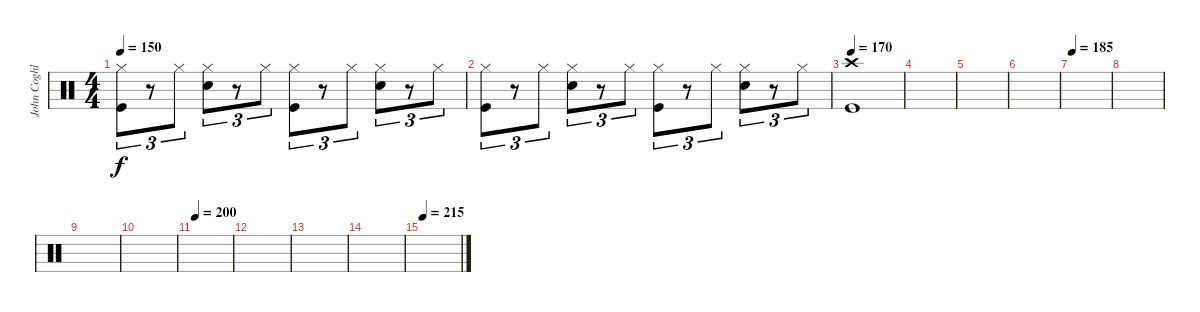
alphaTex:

\track ("John Coghlan" "John Coghl") {instrument percussion}
\staff {score}
\articulation defaults
\ts (4 4)
\tempo 150
\clef neutral
\ks c
("Hi-Hat (closed)" "Kick (hit)").8{tu (3 2) dy f} r.8{tu (3 2)} "Hi-Hat (closed)".8{tu (3 2)} ("Electric Snare (hit)" "Hi-Hat (closed)").8{tu (3 2)} r.8{tu (3 2)} "Hi-Hat (closed)".8{tu (3 2)} ("Hi-Hat (closed)" "Kick (hit)").8{tu (3 2)} r.8{tu (3 2)} "Hi-Hat (closed)".8{tu (3 2)} ("Electric Snare (hit)" "Hi-Hat (closed)").8{tu (3 2)} r.8{tu (3 2)} "Hi-Hat (closed)".8{tu (3 2)} |
("Hi-Hat (closed)" "Kick (hit)").8{tu (3 2)} r.8{tu (3 2)} "Hi-Hat (closed)".8{tu (3 2)} ("Electric Snare (hit)" "Hi-Hat (closed)").8{tu (3 2)} r.8{tu (3 2)} "Hi-Hat (closed)".8{tu (3 2)} ("Hi-Hat (closed)" "Kick (hit)").8{tu (3 2)} r.8{tu (3 2)} "Hi-Hat (closed)".8{tu (3 2)} ("Electric Snare (hit)" "Hi-Hat (closed)").8{tu (3 2)} r.8{tu (3 2)} "Hi-Hat (closed)".8{tu (3 2)} |
\tempo 170
("Crash high (hit)" "Kick (hit)").1 |
|
|
|
\tempo 185
|
|
|
|
\tempo 200
|
|
|
|
\tempo 215
